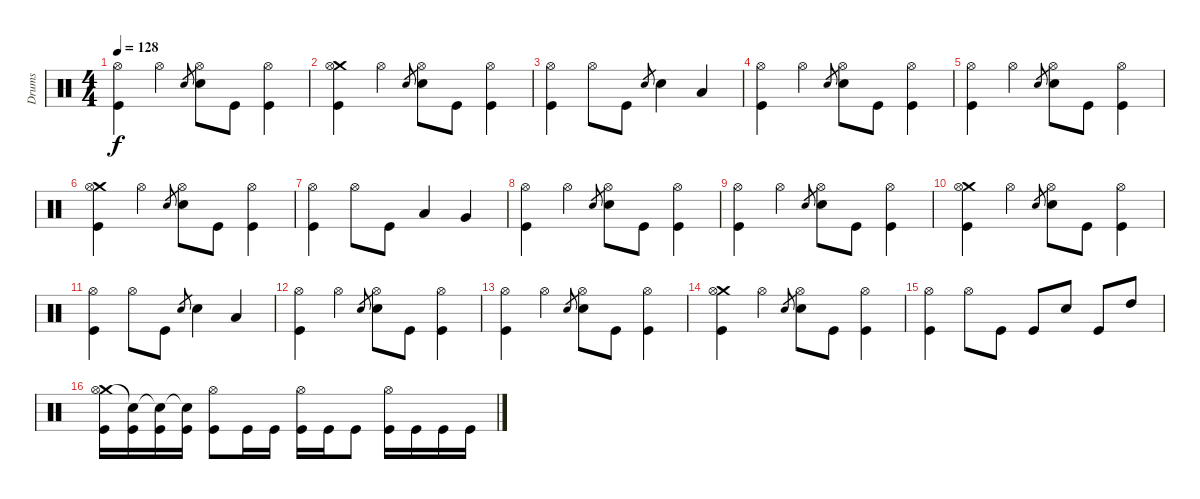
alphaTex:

\track ("Drums" "Drums") {instrument percussion}
\staff {score}
\articulation defaults
\ts (4 4)
\tempo 128
\clef neutral
\ks c
("Hi-Hat (open)" "Kick (hit)").4{dy f} "Hi-Hat (open)".4 "Snare (hit) 2".8{gr} ("Hi-Hat (open)" "Snare (hit) 2").8 "Kick (hit)".8 ("Hi-Hat (open)" "Kick (hit)").4 |
("Crash medium (hit)" "Hi-Hat (open)" "Kick (hit)").4 "Hi-Hat (open)".4 "Snare (hit) 2".8{gr} ("Hi-Hat (open)" "Snare (hit) 2").8 "Kick (hit)".8 ("Hi-Hat (open)" "Kick (hit)").4 |
("Hi-Hat (open)" "Kick (hit)").4 "Hi-Hat (open)".8 "Kick (hit)".8 "Snare (hit) 2".8{gr} "Snare (hit) 2".4 "Low Tom (hit)".4 |
("Hi-Hat (open)" "Kick (hit)").4 "Hi-Hat (open)".4 "Snare (hit) 2".8{gr} ("Hi-Hat (open)" "Snare (hit) 2").8 "Kick (hit)".8 ("Hi-Hat (open)" "Kick (hit)").4 |
("Hi-Hat (open)" "Kick (hit)").4 "Hi-Hat (open)".4 "Snare (hit) 2".8{gr} ("Hi-Hat (open)" "Snare (hit) 2").8 "Kick (hit)".8 ("Hi-Hat (open)" "Kick (hit)").4 |
("Crash medium (hit)" "Hi-Hat (open)" "Kick (hit)").4 "Hi-Hat (open)".4 "Snare (hit) 2".8{gr} ("Hi-Hat (open)" "Snare (hit) 2").8 "Kick (hit)".8 ("Hi-Hat (open)" "Kick (hit)").4 |
("Hi-Hat (open)" "Kick (hit)").4 "Hi-Hat (open)".8 "Kick (hit)".8 "Low Tom (hit)".4 "Very Low Tom (hit)".4 |
("Hi-Hat (open)" "Kick (hit)").4 "Hi-Hat (open)".4 "Snare (hit) 2".8{gr} ("Hi-Hat (open)" "Snare (hit) 2").8 "Kick (hit)".8 ("Hi-Hat (open)" "Kick (hit)").4 |
("Hi-Hat (open)" "Kick (hit)").4 "Hi-Hat (open)".4 "Snare (hit) 2".8{gr} ("Hi-Hat (open)" "Snare (hit) 2").8 "Kick (hit)".8 ("Hi-Hat (open)" "Kick (hit)").4 |
("Crash medium (hit)" "Hi-Hat (open)" "Kick (hit)").4 "Hi-Hat (open)".4 "Snare (hit) 2".8{gr} ("Hi-Hat (open)" "Snare (hit) 2").8 "Kick (hit)".8 ("Hi-Hat (open)" "Kick (hit)").4 |
("Hi-Hat (open)" "Kick (hit)").4 "Hi-Hat (open)".8 "Kick (hit)".8 "Snare (hit) 2".8{gr} "Snare (hit) 2".4 "Low Floor Tom (hit)".4 |
("Hi-Hat (open)" "Kick (hit)").4 "Hi-Hat (open)".4 "Snare (hit) 2".8{gr} ("Hi-Hat (open)" "Snare (hit) 2").8 "Kick (hit)".8 ("Hi-Hat (open)" "Kick (hit)").4 |
("Hi-Hat (open)" "Kick (hit)").4 "Hi-Hat (open)".4 "Snare (hit) 2".8{gr} ("Hi-Hat (open)" "Snare (hit) 2").8 "Kick (hit)".8 ("Hi-Hat (open)" "Kick (hit)").4 |
("Crash medium (hit)" "Hi-Hat (open)" "Kick (hit)").4 "Hi-Hat (open)".4 "Snare (hit) 2".8{gr} ("Hi-Hat (open)" "Snare (hit) 2").8 "Kick (hit)".8 ("Hi-Hat (open)" "Kick (hit)").4 |
("Hi-Hat (open)" "Kick (hit)").4 "Hi-Hat (open)".8 "Kick (hit)".8 "Kick (hit)".8 "Snare (hit) 2".8 "Kick (hit)".8 "High Tom (hit)".8 |
\section ("" "")
("Crash medium (hit)" "Hi-Hat (open)" "Kick (hit)").16 ("Snare (hit)"{t} "Kick (hit)").16 ("Snare (hit)"{t} "Kick (hit)").16 ("Snare (hit)"{t} "Kick (hit)").16 ("Hi-Hat (open)" "Kick (hit)").8 "Kick (hit)".16 "Kick (hit)".16 ("Hi-Hat (open)" "Kick (hit)").16 "Kick (hit)".16 "Kick (hit)".8 ("Hi-Hat (open)" "Kick (hit)").16 "Kick (hit)".16 "Kick (hit)".16 "Kick (hit)".16
